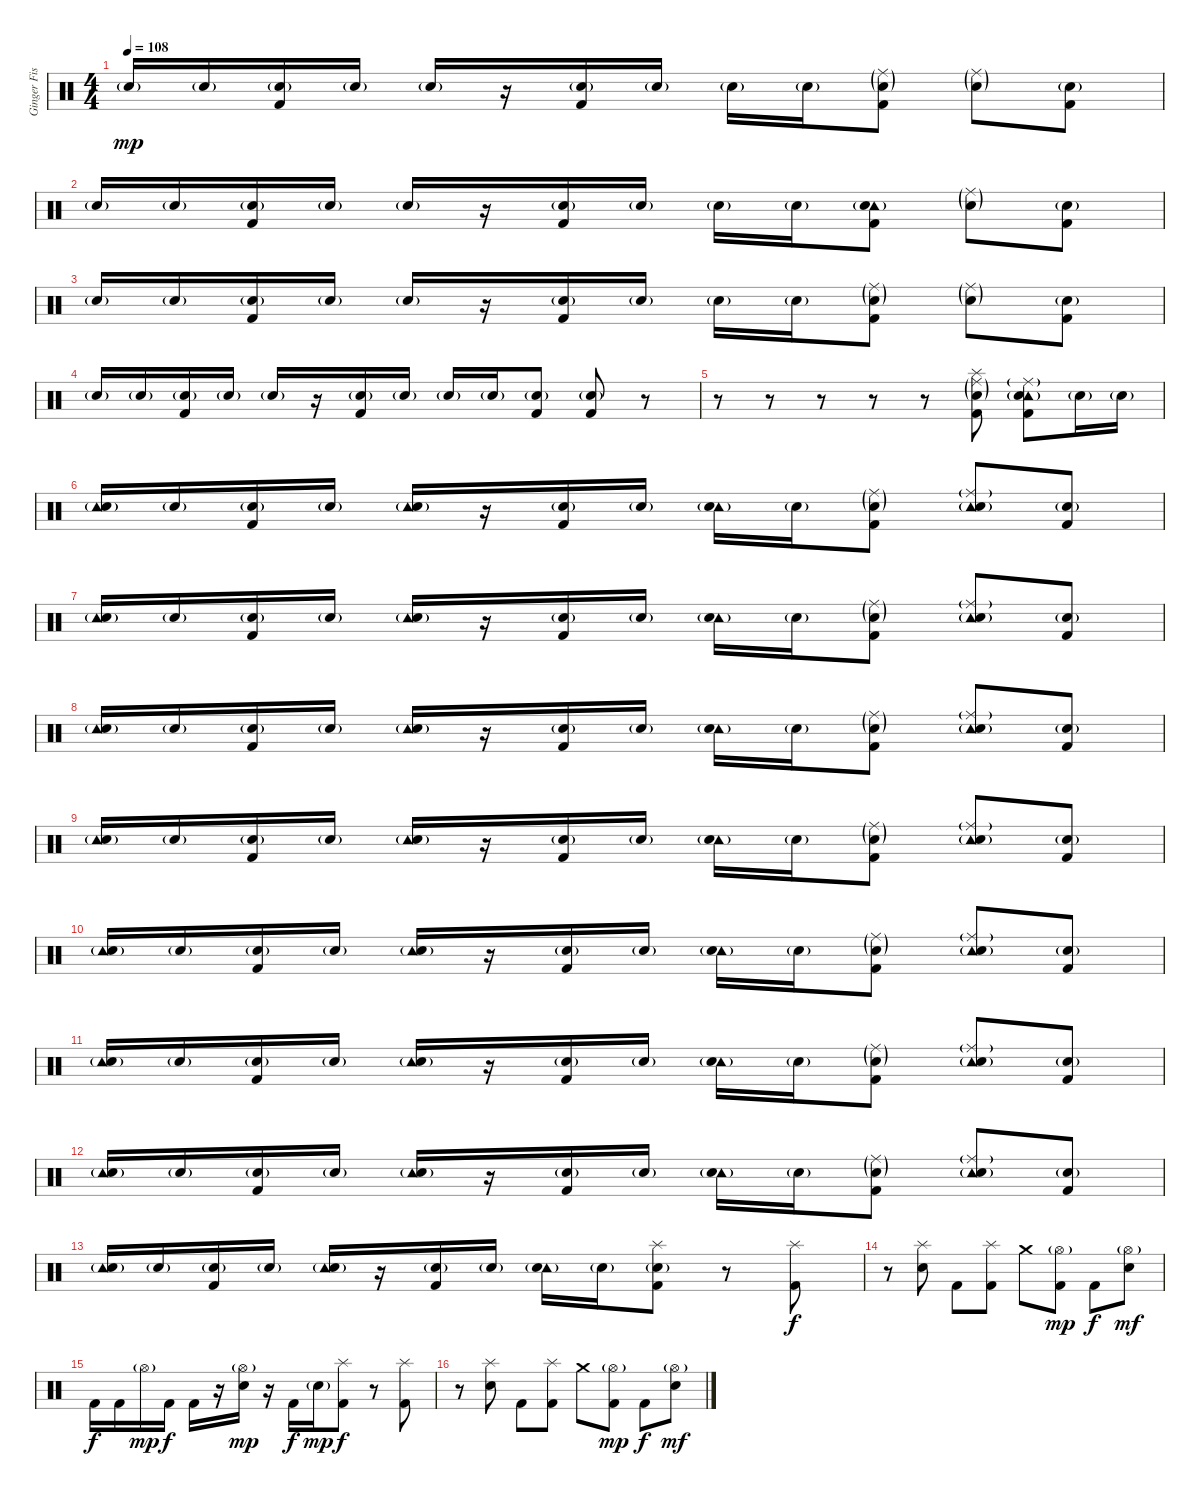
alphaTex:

\track ("Ginger Fish" "Ginger Fis") {instrument percussion}
\staff {score}
\articulation defaults
\ts (4 4)
\tempo 108
\clef neutral
\ks c "Electric Snare (hit)"{g}.16{dy mp} "Electric Snare (hit)"{g}.16
("Electric Snare (hit)"{g} "Kick (hit) 2").16 "Electric Snare (hit)"{g}.16 "Electric Snare (hit)"{g}.16 r.16 ("Electric Snare (hit)"{g} "Kick (hit) 2").16 "Electric Snare (hit)"{g}.16 "Electric Snare (hit)"{g}.16 "Electric Snare (hit)"{g}.16 ("Ride (middle)"{g} "Electric Snare (hit)"{g} "Kick (hit) 2").8 ("Ride (middle)"{g} "Electric Snare (hit)"{g}).8 ("Snare (hit) 2"{g} "Kick (hit) 2").8 |
"Electric Snare (hit)"{g}.16 "Electric Snare (hit)"{g}.16 ("Electric Snare (hit)"{g} "Kick (hit) 2").16 "Electric Snare (hit)"{g}.16 "Electric Snare (hit)"{g}.16 r.16 ("Electric Snare (hit)"{g} "Kick (hit) 2").16 "Electric Snare (hit)"{g}.16 "Electric Snare (hit)"{g}.16 "Electric Snare (hit)"{g}.16 ("Tambourine (hit)"{g} "Electric Snare (hit)"{g} "Kick (hit) 2").8 ("Ride (middle)"{g} "Electric Snare (hit)"{g}).8 ("Snare (hit) 2"{g} "Kick (hit) 2").8 |
"Electric Snare (hit)"{g}.16 "Electric Snare (hit)"{g}.16 ("Electric Snare (hit)"{g} "Kick (hit) 2").16 "Electric Snare (hit)"{g}.16 "Electric Snare (hit)"{g}.16 r.16 ("Electric Snare (hit)"{g} "Kick (hit) 2").16 "Electric Snare (hit)"{g}.16 "Electric Snare (hit)"{g}.16 "Electric Snare (hit)"{g}.16 ("Ride (middle)"{g} "Electric Snare (hit)"{g} "Kick (hit) 2").8 ("Ride (middle)"{g} "Electric Snare (hit)"{g}).8 ("Snare (hit) 2"{g} "Kick (hit) 2").8 |
"Electric Snare (hit)"{g}.16 "Electric Snare (hit)"{g}.16 ("Electric Snare (hit)"{g} "Kick (hit) 2").16 "Electric Snare (hit)"{g}.16 "Electric Snare (hit)"{g}.16 r.16 ("Electric Snare (hit)"{g} "Kick (hit) 2").16 "Electric Snare (hit)"{g}.16 "Electric Snare (hit)"{g}.16 "Electric Snare (hit)"{g}.16 ("Snare (hit) 2"{g} "Kick (hit) 2").8 ("Snare (hit) 2"{g} "Kick (hit) 2").8 r.8 |
r.8 r.8 r.8 r.8 r.8 ("Splash (hit)" "Ride (middle)"{g} "Electric Snare (hit)"{g} "Kick (hit) 2").8 ("Tambourine (hit)" "Ride (middle)"{g} "Electric Snare (hit)"{g} "Kick (hit) 2").8 "Electric Snare (hit)"{g}.16 "Electric Snare (hit)"{g}.16 |
("Tambourine (hit)" "Electric Snare (hit)"{g}).16 "Electric Snare (hit)"{g}.16 ("Electric Snare (hit)"{g} "Kick (hit) 2").16 "Electric Snare (hit)"{g}.16 ("Tambourine (hit)" "Electric Snare (hit)"{g}).16 r.16 ("Electric Snare (hit)"{g} "Kick (hit) 2").16 "Electric Snare (hit)"{g}.16 ("Tambourine (hit)" "Electric Snare (hit)"{g}).16 "Electric Snare (hit)"{g}.16 ("Ride (middle)"{g} "Electric Snare (hit)"{g} "Kick (hit) 2").8 ("Tambourine (hit)" "Ride (middle)"{g} "Electric Snare (hit)"{g}).8 ("Snare (hit) 2"{g} "Kick (hit) 2").8 |
("Tambourine (hit)" "Electric Snare (hit)"{g}).16 "Electric Snare (hit)"{g}.16 ("Electric Snare (hit)"{g} "Kick (hit) 2").16 "Electric Snare (hit)"{g}.16 ("Tambourine (hit)" "Electric Snare (hit)"{g}).16 r.16 ("Electric Snare (hit)"{g} "Kick (hit) 2").16 "Electric Snare (hit)"{g}.16 ("Tambourine (hit)" "Electric Snare (hit)"{g}).16 "Electric Snare (hit)"{g}.16 ("Ride (middle)"{g} "Electric Snare (hit)"{g} "Kick (hit) 2").8 ("Tambourine (hit)" "Ride (middle)"{g} "Electric Snare (hit)"{g}).8 ("Snare (hit) 2"{g} "Kick (hit) 2").8 |
("Tambourine (hit)" "Electric Snare (hit)"{g}).16 "Electric Snare (hit)"{g}.16 ("Electric Snare (hit)"{g} "Kick (hit) 2").16 "Electric Snare (hit)"{g}.16 ("Tambourine (hit)" "Electric Snare (hit)"{g}).16 r.16 ("Electric Snare (hit)"{g} "Kick (hit) 2").16 "Electric Snare (hit)"{g}.16 ("Tambourine (hit)" "Electric Snare (hit)"{g}).16 "Electric Snare (hit)"{g}.16 ("Ride (middle)"{g} "Electric Snare (hit)"{g} "Kick (hit) 2").8 ("Tambourine (hit)" "Ride (middle)"{g} "Electric Snare (hit)"{g}).8 ("Snare (hit) 2"{g} "Kick (hit) 2").8 |
("Tambourine (hit)" "Electric Snare (hit)"{g}).16 "Electric Snare (hit)"{g}.16 ("Electric Snare (hit)"{g} "Kick (hit) 2").16 "Electric Snare (hit)"{g}.16 ("Tambourine (hit)" "Electric Snare (hit)"{g}).16 r.16 ("Electric Snare (hit)"{g} "Kick (hit) 2").16 "Electric Snare (hit)"{g}.16 ("Tambourine (hit)" "Electric Snare (hit)"{g}).16 "Electric Snare (hit)"{g}.16 ("Ride (middle)"{g} "Electric Snare (hit)"{g} "Kick (hit) 2").8 ("Tambourine (hit)" "Ride (middle)"{g} "Electric Snare (hit)"{g}).8 ("Snare (hit) 2"{g} "Kick (hit) 2").8 |
("Tambourine (hit)" "Electric Snare (hit)"{g}).16 "Electric Snare (hit)"{g}.16 ("Electric Snare (hit)"{g} "Kick (hit) 2").16 "Electric Snare (hit)"{g}.16 ("Tambourine (hit)" "Electric Snare (hit)"{g}).16 r.16 ("Electric Snare (hit)"{g} "Kick (hit) 2").16 "Electric Snare (hit)"{g}.16 ("Tambourine (hit)" "Electric Snare (hit)"{g}).16 "Electric Snare (hit)"{g}.16 ("Ride (middle)"{g} "Electric Snare (hit)"{g} "Kick (hit) 2").8 ("Tambourine (hit)" "Ride (middle)"{g} "Electric Snare (hit)"{g}).8 ("Snare (hit) 2"{g} "Kick (hit) 2").8 |
("Tambourine (hit)" "Electric Snare (hit)"{g}).16 "Electric Snare (hit)"{g}.16 ("Electric Snare (hit)"{g} "Kick (hit) 2").16 "Electric Snare (hit)"{g}.16 ("Tambourine (hit)" "Electric Snare (hit)"{g}).16 r.16 ("Electric Snare (hit)"{g} "Kick (hit) 2").16 "Electric Snare (hit)"{g}.16 ("Tambourine (hit)" "Electric Snare (hit)"{g}).16 "Electric Snare (hit)"{g}.16 ("Ride (middle)"{g} "Electric Snare (hit)"{g} "Kick (hit) 2").8 ("Tambourine (hit)" "Ride (middle)"{g} "Electric Snare (hit)"{g}).8 ("Snare (hit) 2"{g} "Kick (hit) 2").8 |
("Tambourine (hit)" "Electric Snare (hit)"{g}).16 "Electric Snare (hit)"{g}.16 ("Electric Snare (hit)"{g} "Kick (hit) 2").16 "Electric Snare (hit)"{g}.16 ("Tambourine (hit)" "Electric Snare (hit)"{g}).16 r.16 ("Electric Snare (hit)"{g} "Kick (hit) 2").16 "Electric Snare (hit)"{g}.16 ("Tambourine (hit)" "Electric Snare (hit)"{g}).16 "Electric Snare (hit)"{g}.16 ("Ride (middle)"{g} "Electric Snare (hit)"{g} "Kick (hit) 2").8 ("Tambourine (hit)" "Ride (middle)"{g} "Electric Snare (hit)"{g}).8 ("Snare (hit) 2"{g} "Kick (hit) 2").8 |
("Tambourine (hit)" "Electric Snare (hit)"{g}).16 "Electric Snare (hit)"{g}.16 ("Electric Snare (hit)"{g} "Kick (hit) 2").16 "Electric Snare (hit)"{g}.16 ("Tambourine (hit)" "Electric Snare (hit)"{g}).16 r.16 ("Electric Snare (hit)"{g} "Kick (hit) 2").16 "Electric Snare (hit)"{g}.16 ("Tambourine (hit)" "Electric Snare (hit)"{g}).16 "Electric Snare (hit)"{g}.16 ("Splash (hit)" "Electric Snare (hit)"{g} "Kick (hit) 2").8 r.8 ("Splash (hit)" "Kick (hit) 2").8{dy f} |
r.8 ("Splash (hit)" "Electric Snare (hit)").8 "Kick (hit) 2".8 ("Splash (hit)" "Kick (hit) 2").8 "Crash medium (hit)".8 ("Hi-Hat (open)"{g} "Kick (hit) 2").8{dy mp} "Kick (hit) 2".8{dy f} ("Hi-Hat (open)"{g} "Electric Snare (hit)").8{dy mf} |
"Kick (hit) 2".16{dy f} "Kick (hit) 2".16 "Hi-Hat (open)"{g}.16{dy mp} "Kick (hit) 2".16{dy f} "Kick (hit) 2".16 r.16 ("Hi-Hat (open)"{g} "Electric Snare (hit)").16{dy mp} r.16 "Kick (hit) 2".16{dy f} "Electric Snare (hit)"{g}.16{dy mp} ("Splash (hit)" "Kick (hit) 2").8{dy f} r.8 ("Splash (hit)" "Kick (hit) 2").8 |
r.8 ("Splash (hit)" "Electric Snare (hit)").8 "Kick (hit) 2".8 ("Splash (hit)" "Kick (hit) 2").8 "Crash medium (hit)".8 ("Hi-Hat (open)"{g} "Kick (hit) 2").8{dy mp} "Kick (hit) 2".8{dy f} ("Hi-Hat (open)"{g} "Electric Snare (hit)").8{dy mf}
